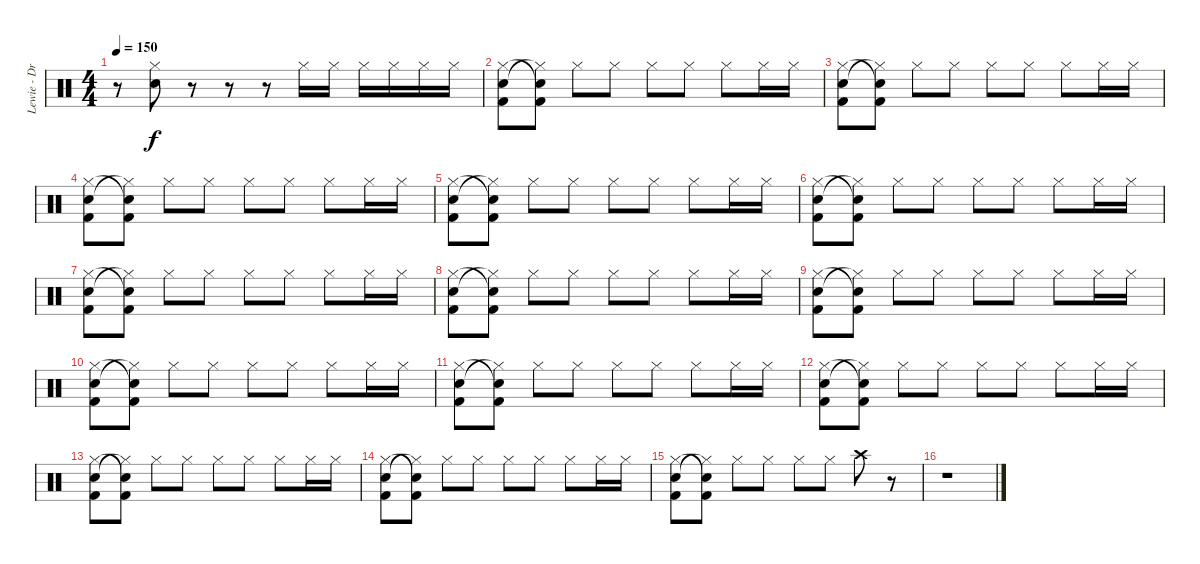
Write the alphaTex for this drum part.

\track ("Lewie - Drums" "Lewie - Dr") {instrument percussion}
\staff {score}
\articulation defaults
\ts (4 4)
\tempo 150
\clef neutral
\ks c
r.8{dy f} ("Hi-Hat (closed)"{t} "Snare (hit)"{t}).8 r.8 r.8 r.8 "Hi-Hat (closed)".16 "Hi-Hat (closed)".16 "Hi-Hat (closed)".16 "Hi-Hat (closed)".16 "Hi-Hat (closed)".16 "Hi-Hat (closed)".16 |
("Electric Snare (hit)" "Hi-Hat (closed)" "Kick (hit) 2").8 ("Hi-Hat (closed)"{t} "Snare (hit)"{t} "Kick (hit) 2").8 "Hi-Hat (closed)".8 "Hi-Hat (closed)".8 "Hi-Hat (closed)".8 "Hi-Hat (closed)".8 "Hi-Hat (closed)".8 "Hi-Hat (closed)".16 "Hi-Hat (closed)".16 |
("Electric Snare (hit)" "Hi-Hat (closed)" "Kick (hit) 2").8 ("Hi-Hat (closed)"{t} "Snare (hit)"{t} "Kick (hit) 2").8 "Hi-Hat (closed)".8 "Hi-Hat (closed)".8 "Hi-Hat (closed)".8 "Hi-Hat (closed)".8 "Hi-Hat (closed)".8 "Hi-Hat (closed)".16 "Hi-Hat (closed)".16 |
("Electric Snare (hit)" "Hi-Hat (closed)" "Kick (hit) 2").8 ("Hi-Hat (closed)"{t} "Snare (hit)"{t} "Kick (hit) 2").8 "Hi-Hat (closed)".8 "Hi-Hat (closed)".8 "Hi-Hat (closed)".8 "Hi-Hat (closed)".8 "Hi-Hat (closed)".8 "Hi-Hat (closed)".16 "Hi-Hat (closed)".16 |
("Electric Snare (hit)" "Hi-Hat (closed)" "Kick (hit) 2").8 ("Hi-Hat (closed)"{t} "Snare (hit)"{t} "Kick (hit) 2").8 "Hi-Hat (closed)".8 "Hi-Hat (closed)".8 "Hi-Hat (closed)".8 "Hi-Hat (closed)".8 "Hi-Hat (closed)".8 "Hi-Hat (closed)".16 "Hi-Hat (closed)".16 |
("Electric Snare (hit)" "Hi-Hat (closed)" "Kick (hit) 2").8 ("Hi-Hat (closed)"{t} "Snare (hit)"{t} "Kick (hit) 2").8 "Hi-Hat (closed)".8 "Hi-Hat (closed)".8 "Hi-Hat (closed)".8 "Hi-Hat (closed)".8 "Hi-Hat (closed)".8 "Hi-Hat (closed)".16 "Hi-Hat (closed)".16 |
("Electric Snare (hit)" "Hi-Hat (closed)" "Kick (hit) 2").8 ("Hi-Hat (closed)"{t} "Snare (hit)"{t} "Kick (hit) 2").8 "Hi-Hat (closed)".8 "Hi-Hat (closed)".8 "Hi-Hat (closed)".8 "Hi-Hat (closed)".8 "Hi-Hat (closed)".8 "Hi-Hat (closed)".16 "Hi-Hat (closed)".16 |
("Electric Snare (hit)" "Hi-Hat (closed)" "Kick (hit) 2").8 ("Hi-Hat (closed)"{t} "Snare (hit)"{t} "Kick (hit) 2").8 "Hi-Hat (closed)".8 "Hi-Hat (closed)".8 "Hi-Hat (closed)".8 "Hi-Hat (closed)".8 "Hi-Hat (closed)".8 "Hi-Hat (closed)".16 "Hi-Hat (closed)".16 |
("Electric Snare (hit)" "Hi-Hat (closed)" "Kick (hit) 2").8 ("Hi-Hat (closed)"{t} "Snare (hit)"{t} "Kick (hit) 2").8 "Hi-Hat (closed)".8 "Hi-Hat (closed)".8 "Hi-Hat (closed)".8 "Hi-Hat (closed)".8 "Hi-Hat (closed)".8 "Hi-Hat (closed)".16 "Hi-Hat (closed)".16 |
("Electric Snare (hit)" "Hi-Hat (closed)" "Kick (hit) 2").8 ("Hi-Hat (closed)"{t} "Snare (hit)"{t} "Kick (hit) 2").8 "Hi-Hat (closed)".8 "Hi-Hat (closed)".8 "Hi-Hat (closed)".8 "Hi-Hat (closed)".8 "Hi-Hat (closed)".8 "Hi-Hat (closed)".16 "Hi-Hat (closed)".16 |
("Electric Snare (hit)" "Hi-Hat (closed)" "Kick (hit) 2").8 ("Hi-Hat (closed)"{t} "Snare (hit)"{t} "Kick (hit) 2").8 "Hi-Hat (closed)".8 "Hi-Hat (closed)".8 "Hi-Hat (closed)".8 "Hi-Hat (closed)".8 "Hi-Hat (closed)".8 "Hi-Hat (closed)".16 "Hi-Hat (closed)".16 |
("Electric Snare (hit)" "Hi-Hat (closed)" "Kick (hit) 2").8 ("Hi-Hat (closed)"{t} "Snare (hit)"{t} "Kick (hit) 2").8 "Hi-Hat (closed)".8 "Hi-Hat (closed)".8 "Hi-Hat (closed)".8 "Hi-Hat (closed)".8 "Hi-Hat (closed)".8 "Hi-Hat (closed)".16 "Hi-Hat (closed)".16 |
("Electric Snare (hit)" "Hi-Hat (closed)" "Kick (hit) 2").8 ("Hi-Hat (closed)"{t} "Snare (hit)"{t} "Kick (hit) 2").8 "Hi-Hat (closed)".8 "Hi-Hat (closed)".8 "Hi-Hat (closed)".8 "Hi-Hat (closed)".8 "Hi-Hat (closed)".8 "Hi-Hat (closed)".16 "Hi-Hat (closed)".16 |
("Electric Snare (hit)" "Hi-Hat (closed)" "Kick (hit) 2").8 ("Hi-Hat (closed)"{t} "Snare (hit)"{t} "Kick (hit) 2").8 "Hi-Hat (closed)".8 "Hi-Hat (closed)".8 "Hi-Hat (closed)".8 "Hi-Hat (closed)".8 "Hi-Hat (closed)".8 "Hi-Hat (closed)".16 "Hi-Hat (closed)".16 |
("Electric Snare (hit)" "Hi-Hat (closed)" "Kick (hit) 2").8 ("Hi-Hat (closed)"{t} "Snare (hit)"{t} "Kick (hit) 2").8 "Hi-Hat (closed)".8 "Hi-Hat (closed)".8 "Hi-Hat (closed)".8 "Hi-Hat (closed)".8 "Crash high (hit)".8 r.8 |
r.1
